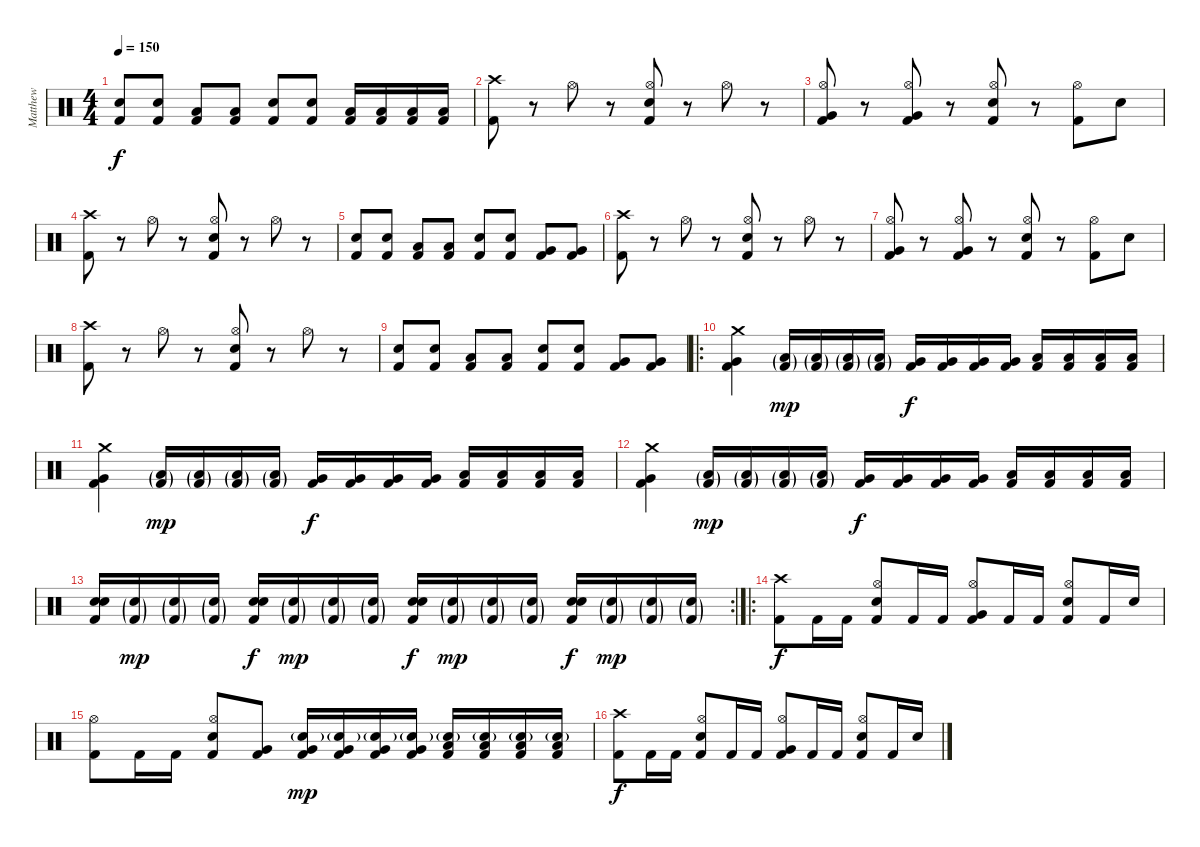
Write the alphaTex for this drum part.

\track ("Matthew" "Matthew") {instrument percussion}
\staff {score}
\articulation defaults
\ts (4 4)
\tempo 150
\clef neutral
\ks c
("Electric Snare (hit)" "Kick (hit) 2").8{dy f} ("Electric Snare (hit)" "Kick (hit) 2").8 ("Low Tom (hit)" "Kick (hit) 2").8 ("Low Tom (hit)" "Kick (hit) 2").8 ("Electric Snare (hit)" "Kick (hit) 2").8 ("Electric Snare (hit)" "Kick (hit) 2").8 ("Low Tom (hit)" "Kick (hit) 2").16 ("Low Tom (hit)" "Kick (hit) 2").16 ("Low Tom (hit)" "Kick (hit) 2").16 ("Low Tom (hit)" "Kick (hit) 2").16 |
("Crash high (hit)" "Kick (hit) 2").8 r.8 "Hi-Hat (open)".8 r.8 ("Hi-Hat (open)" "Snare (hit) 2" "Kick (hit) 2").8 r.8 "Hi-Hat (open)".8 r.8 |
("Hi-Hat (open)" "Very Low Tom (hit)" "Kick (hit) 2").8 r.8 ("Hi-Hat (open)" "Very Low Tom (hit)" "Kick (hit) 2").8 r.8 ("Hi-Hat (open)" "Snare (hit) 2" "Kick (hit) 2").8 r.8 ("Hi-Hat (open)" "Kick (hit) 2").8 "Snare (hit) 2".8 |
("Crash high (hit)" "Kick (hit) 2").8 r.8 "Hi-Hat (open)".8 r.8 ("Hi-Hat (open)" "Snare (hit) 2" "Kick (hit) 2").8 r.8 "Hi-Hat (open)".8 r.8 |
("Electric Snare (hit)" "Kick (hit) 2").8 ("Electric Snare (hit)" "Kick (hit) 2").8 ("Low Tom (hit)" "Kick (hit) 2").8 ("Low Tom (hit)" "Kick (hit) 2").8 ("Electric Snare (hit)" "Kick (hit) 2").8 ("Electric Snare (hit)" "Kick (hit) 2").8 ("Very Low Tom (hit)" "Kick (hit) 2").8 ("Very Low Tom (hit)" "Kick (hit) 2").8 |
("Crash high (hit)" "Kick (hit) 2").8 r.8 "Hi-Hat (open)".8 r.8 ("Hi-Hat (open)" "Snare (hit) 2" "Kick (hit) 2").8 r.8 "Hi-Hat (open)".8 r.8 |
("Hi-Hat (open)" "Very Low Tom (hit)" "Kick (hit) 2").8 r.8 ("Hi-Hat (open)" "Very Low Tom (hit)" "Kick (hit) 2").8 r.8 ("Hi-Hat (open)" "Snare (hit) 2" "Kick (hit) 2").8 r.8 ("Hi-Hat (open)" "Kick (hit) 2").8 "Snare (hit) 2".8 |
("Crash high (hit)" "Kick (hit) 2").8 r.8 "Hi-Hat (open)".8 r.8 ("Hi-Hat (open)" "Snare (hit) 2" "Kick (hit) 2").8 r.8 "Hi-Hat (open)".8 r.8 |
("Electric Snare (hit)" "Kick (hit) 2").8 ("Electric Snare (hit)" "Kick (hit) 2").8 ("Low Tom (hit)" "Kick (hit) 2").8 ("Low Tom (hit)" "Kick (hit) 2").8 ("Electric Snare (hit)" "Kick (hit) 2").8 ("Electric Snare (hit)" "Kick (hit) 2").8 ("Very Low Tom (hit)" "Kick (hit) 2").8 ("Very Low Tom (hit)" "Kick (hit) 2").8 |
\ro
("Crash medium (hit)" "Very Low Tom (hit)" "Kick (hit) 2").4 ("Low Tom (hit)"{g} "Kick (hit) 2"{g}).16{dy mp} ("Low Tom (hit)"{g} "Kick (hit) 2"{g}).16 ("Low Tom (hit)"{g} "Kick (hit) 2"{g}).16 ("Low Tom (hit)"{g} "Kick (hit) 2"{g}).16 ("Very Low Tom (hit)" "Kick (hit) 2").16{dy f} ("Very Low Tom (hit)" "Kick (hit) 2").16 ("Very Low Tom (hit)" "Kick (hit) 2").16 ("Very Low Tom (hit)" "Kick (hit) 2").16 ("Low Floor Tom (hit)" "Kick (hit) 2").16 ("Low Floor Tom (hit)" "Kick (hit) 2").16 ("Low Floor Tom (hit)" "Kick (hit) 2").16 ("Low Floor Tom (hit)" "Kick (hit) 2").16 |
("Crash medium (hit)" "Very Low Tom (hit)" "Kick (hit) 2").4 ("Low Tom (hit)"{g} "Kick (hit) 2"{g}).16{dy mp} ("Low Tom (hit)"{g} "Kick (hit) 2"{g}).16 ("Low Tom (hit)"{g} "Kick (hit) 2"{g}).16 ("Low Tom (hit)"{g} "Kick (hit) 2"{g}).16 ("Very Low Tom (hit)" "Kick (hit) 2").16{dy f} ("Very Low Tom (hit)" "Kick (hit) 2").16 ("Very Low Tom (hit)" "Kick (hit) 2").16 ("Very Low Tom (hit)" "Kick (hit) 2").16 ("Low Floor Tom (hit)" "Kick (hit) 2").16 ("Low Floor Tom (hit)" "Kick (hit) 2").16 ("Low Floor Tom (hit)" "Kick (hit) 2").16 ("Low Floor Tom (hit)" "Kick (hit) 2").16 |
("Crash medium (hit)" "Very Low Tom (hit)" "Kick (hit) 2").4 ("Low Tom (hit)"{g} "Kick (hit) 2"{g}).16{dy mp} ("Low Tom (hit)"{g} "Kick (hit) 2"{g}).16 ("Low Tom (hit)"{g} "Kick (hit) 2"{g}).16 ("Low Tom (hit)"{g} "Kick (hit) 2"{g}).16 ("Very Low Tom (hit)" "Kick (hit) 2").16{dy f} ("Very Low Tom (hit)" "Kick (hit) 2").16 ("Very Low Tom (hit)" "Kick (hit) 2").16 ("Very Low Tom (hit)" "Kick (hit) 2").16 ("Low Floor Tom (hit)" "Kick (hit) 2").16 ("Low Floor Tom (hit)" "Kick (hit) 2").16 ("Low Floor Tom (hit)" "Kick (hit) 2").16 ("Low Floor Tom (hit)" "Kick (hit) 2").16 |
\rc 2
("Snare (hit) 2" "Snare (hit) 2" "Kick (hit) 2").16 ("Snare (hit) 2"{g} "Kick (hit) 2"{g}).16{dy mp} ("Snare (hit) 2"{g} "Kick (hit) 2"{g}).16 ("Snare (hit) 2"{g} "Kick (hit) 2"{g}).16 ("Snare (hit) 2" "Snare (hit) 2" "Kick (hit) 2").16{dy f} ("Snare (hit) 2"{g} "Kick (hit) 2"{g}).16{dy mp} ("Snare (hit) 2"{g} "Kick (hit) 2"{g}).16 ("Snare (hit) 2"{g} "Kick (hit) 2"{g}).16 ("Snare (hit) 2" "Snare (hit) 2" "Kick (hit) 2").16{dy f} ("Snare (hit) 2"{g} "Kick (hit) 2"{g}).16{dy mp} ("Snare (hit) 2"{g} "Kick (hit) 2"{g}).16 ("Snare (hit) 2"{g} "Kick (hit) 2"{g}).16 ("Snare (hit) 2" "Snare (hit) 2" "Kick (hit) 2").16{dy f} ("Snare (hit) 2"{g} "Kick (hit) 2"{g}).16{dy mp} ("Snare (hit) 2"{g} "Kick (hit) 2"{g}).16 ("Snare (hit) 2"{g} "Kick (hit) 2"{g}).16 |
\ro
("Crash high (hit)" "Kick (hit) 2").8{dy f} "Kick (hit) 2".16 "Kick (hit) 2".16 ("Hi-Hat (open)" "Snare (hit) 2" "Kick (hit) 2").8 "Kick (hit) 2".16 "Kick (hit) 2".16 ("Hi-Hat (open)" "Very Low Tom (hit)" "Kick (hit) 2").8 "Kick (hit) 2".16 "Kick (hit) 2".16 ("Hi-Hat (open)" "Snare (hit) 2" "Kick (hit) 2").8 "Kick (hit) 2".16 "Snare (hit) 2".16 |
("Hi-Hat (open)" "Kick (hit) 2").8 "Kick (hit) 2".16 "Kick (hit) 2".16 ("Hi-Hat (open)" "Snare (hit) 2" "Kick (hit) 2").8 ("Very Low Tom (hit)" "Kick (hit) 2").8 ("Snare (hit) 2"{g} "Very Low Tom (hit)" "Kick (hit) 2").16{dy mp} ("Snare (hit) 2"{g} "Very Low Tom (hit)" "Kick (hit) 2").16 ("Snare (hit) 2"{g} "Very Low Tom (hit)" "Kick (hit) 2").16 ("Snare (hit) 2"{g} "Very Low Tom (hit)" "Kick (hit) 2").16 ("Snare (hit) 2"{g} "Low Floor Tom (hit)" "Kick (hit) 2").16 ("Snare (hit) 2"{g} "Low Floor Tom (hit)" "Kick (hit) 2").16 ("Snare (hit) 2"{g} "Low Floor Tom (hit)" "Kick (hit) 2").16 ("Snare (hit) 2"{g} "Low Floor Tom (hit)" "Kick (hit) 2").16 |
("Crash high (hit)" "Kick (hit) 2").8{dy f} "Kick (hit) 2".16 "Kick (hit) 2".16 ("Hi-Hat (open)" "Snare (hit) 2" "Kick (hit) 2").8 "Kick (hit) 2".16 "Kick (hit) 2".16 ("Hi-Hat (open)" "Very Low Tom (hit)" "Kick (hit) 2").8 "Kick (hit) 2".16 "Kick (hit) 2".16 ("Hi-Hat (open)" "Snare (hit) 2" "Kick (hit) 2").8 "Kick (hit) 2".16 "Snare (hit) 2".16
